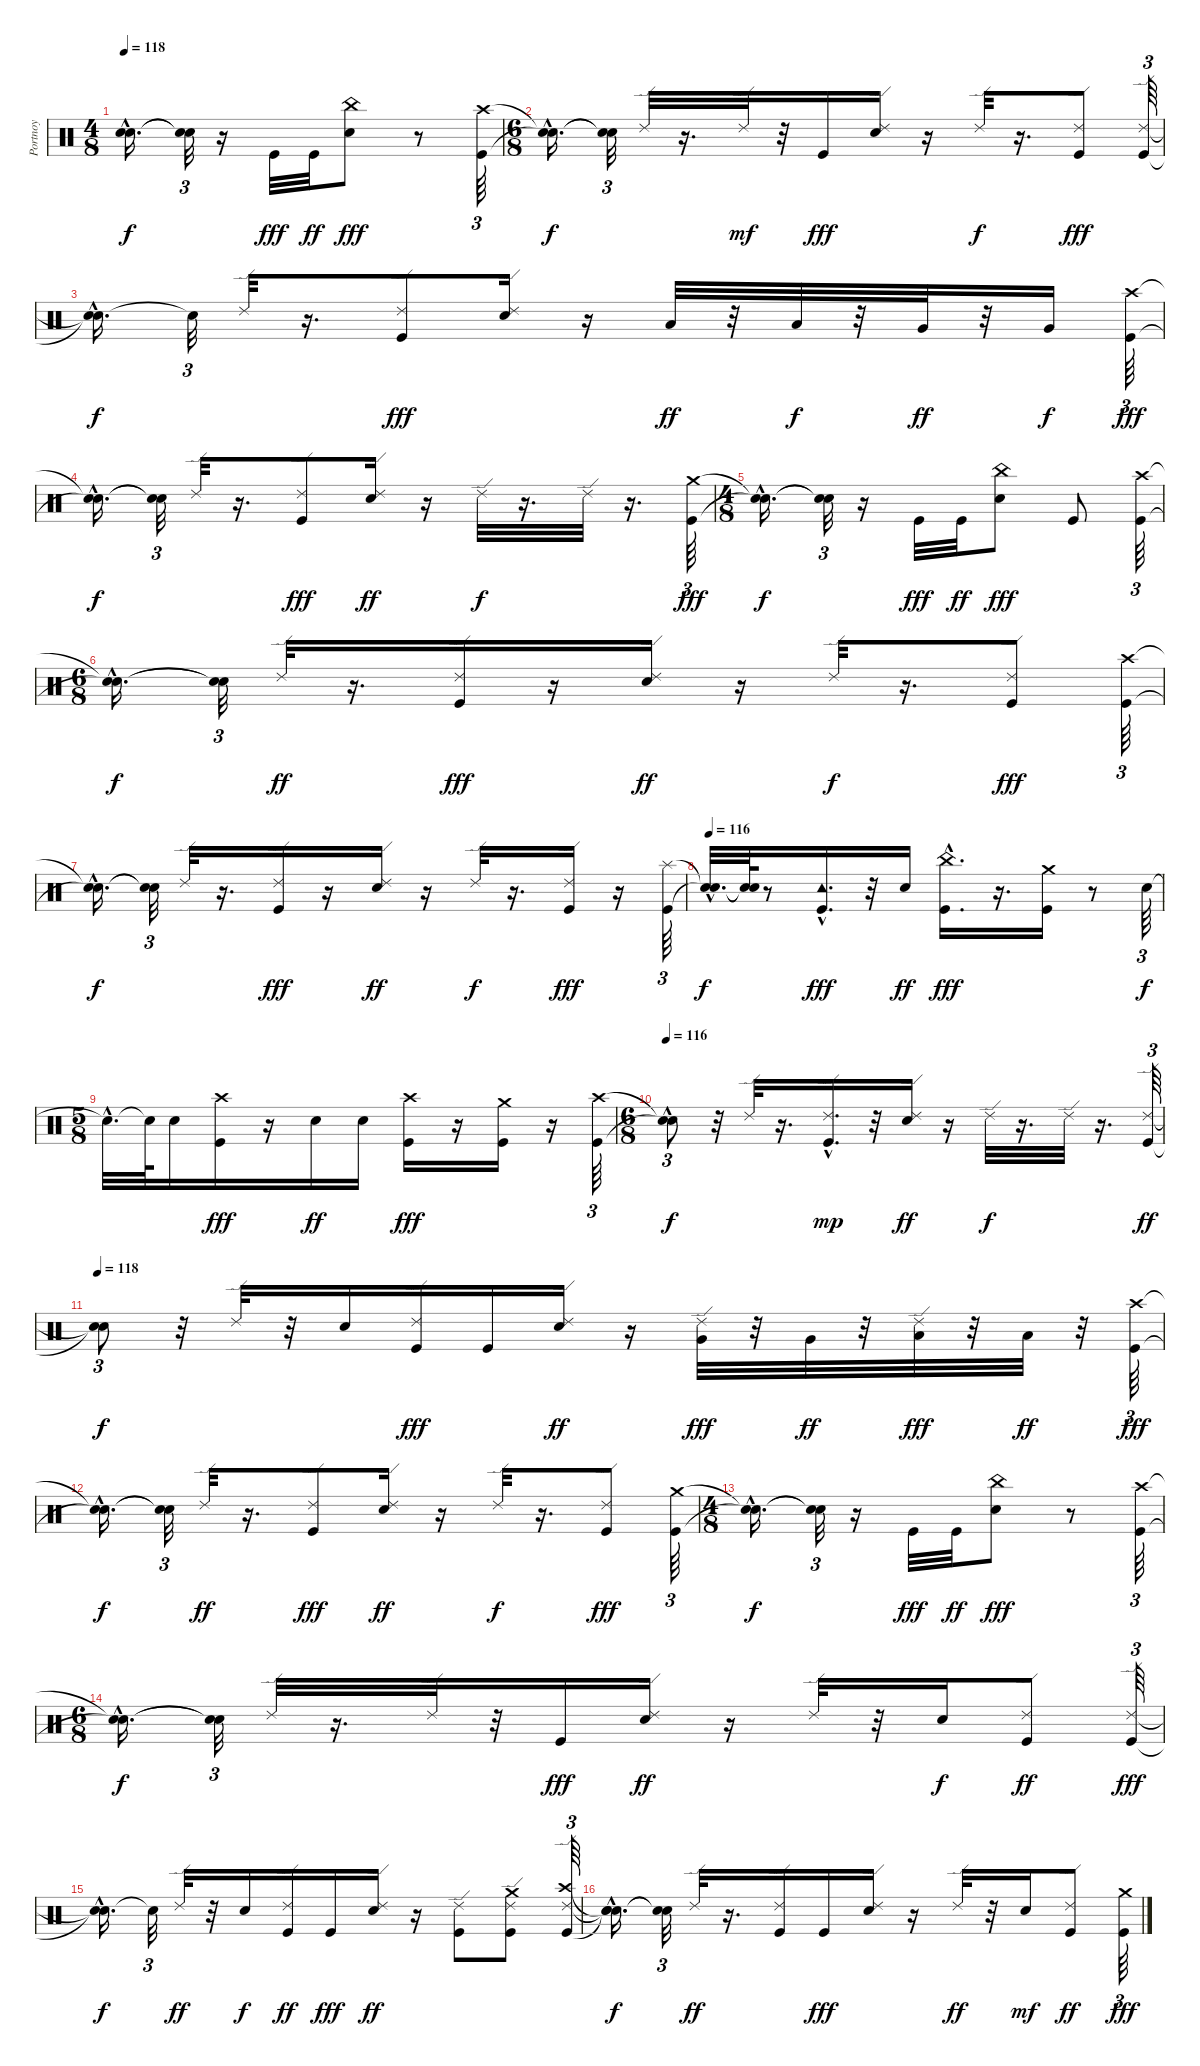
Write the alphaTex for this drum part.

\track ("Portnoy" "Portnoy") {instrument percussion}
\staff {score}
\articulation defaults
\ts (4 8)
\tempo 118
\clef neutral
\ks c
("Snare (hit)"{hac t} "Snare (hit)"{hac t}).16{d dy f} ("Snare (hit)"{t} "Snare (hit)"{t}).32{tu (3 2)} r.16 "Kick (hit)".32{dy fff} "Kick (hit)".32{dy ff} ("Snare (hit) 2" "China (hit)").8{dy fff} r.8 ("Crash high (hit)" "Kick (hit)").64{tu (3 2)} |
\ts (6 8)
("Snare (hit)"{hac t} "Snare (hit)"{hac t}).16{d dy f} ("Snare (hit)"{t} "Snare (hit)"{t}).32{tu (3 2)} "Ride (edge) 2".32 r.16{d} "Ride (edge) 2".32{dy mf} r.32 "Kick (hit)".16{dy fff} ("Ride (edge) 2" "Snare (hit) 2").16 r.16 "Ride (edge) 2".32{dy f} r.16{d} ("Ride (edge) 2" "Kick (hit)").8{dy fff} ("Ride (edge) 2" "Kick (hit)").64{tu (3 2)} |
("Snare (hit)"{t} "Snare (hit)"{hac t}).16{d dy f} "Snare (hit)"{t}.32{tu (3 2)} "Ride (edge) 2".32 r.16{d} ("Ride (edge) 2" "Kick (hit)").8{dy fff} ("Ride (edge) 2" "Snare (hit) 2").16 r.16 "Low Tom (hit)".32{dy ff} r.32 "Low Tom (hit)".32{dy f} r.32 "Very Low Tom (hit)".32{dy ff} r.32 "Very Low Tom (hit)".16{dy f} ("Crash high (hit)" "Kick (hit)").64{tu (3 2) dy fff} |
("Snare (hit)"{hac t} "Snare (hit)"{hac t}).16{d dy f} ("Snare (hit)"{t} "Snare (hit)"{t}).32{tu (3 2)} "Ride (edge) 2".32 r.16{d} ("Kick (hit)" "Ride (edge) 2").8{dy fff} ("Snare (hit) 2" "Ride (edge) 2").16{dy ff} r.16 "Ride (edge) 2".32{dy f} r.16{d} "Ride (edge) 2".32 r.16{d} ("Crash medium (hit)" "Kick (hit)").64{tu (3 2) dy fff} |
\ts (4 8)
("Snare (hit)"{hac t} "Snare (hit)"{hac t}).16{d dy f} ("Snare (hit)"{t} "Snare (hit)"{t}).32{tu (3 2)} r.16 "Kick (hit)".32{dy fff} "Kick (hit)".32{dy ff} ("China (hit)" "Snare (hit) 2").8{dy fff} "Kick (hit)".8 ("Crash high (hit)" "Kick (hit)").64{tu (3 2)} |
\ts (6 8)
("Snare (hit)"{hac t} "Snare (hit)"{hac t}).16{d dy f} ("Snare (hit)"{t} "Snare (hit)"{t}).32{tu (3 2)} "Ride (edge) 2".32{dy ff} r.16{d} ("Kick (hit)" "Ride (edge) 2").16{dy fff} r.16 ("Snare (hit) 2" "Ride (edge) 2").16{dy ff} r.16 "Ride (edge) 2".32{dy f} r.16{d} ("Ride (edge) 2" "Kick (hit)").8{dy fff} ("Crash high (hit)" "Kick (hit)").64{tu (3 2)} |
("Snare (hit)"{hac t} "Snare (hit)"{hac t}).16{d dy f} ("Snare (hit)"{t} "Snare (hit)"{t}).32{tu (3 2)} "Ride (edge) 2".32 r.16{d} ("Kick (hit)" "Ride (edge) 2").16{dy fff} r.16 ("Snare (hit) 2" "Ride (edge) 2").16{dy ff} r.16 "Ride (edge) 2".32{dy f} r.16{d} ("Kick (hit)" "Ride (edge) 2").16{dy fff} r.16 ("Splash (hit)" "Kick (hit)").64{tu (3 2)} |
\tempo 116
("Snare (hit)"{hac t} "Snare (hit)"{hac t}).32{d dy f} ("Snare (hit)"{t} "Snare (hit)"{t}).64 r.8 ("Kick (hit)"{hac} "Tambourine (hit)"{hac}).16{d dy fff} r.32 "Snare (hit) 2".16{dy ff} ("Kick (hit)"{hac} "China (hit)"{hac}).16{d dy fff} r.16{d} ("Crash medium (hit)" "Kick (hit)").16 r.8 "Snare (hit) 2".64{tu (3 2) dy f} |
\ts (5 8)
"Snare (hit)"{hac t}.32{d} "Snare (hit)"{t}.64 "Snare (hit) 2".16 ("Crash high (hit)" "Kick (hit)").16{dy fff} r.16 "Snare (hit) 2".16{dy ff} "Snare (hit) 2".16 ("Crash high (hit)" "Kick (hit)").16{dy fff} r.16 ("Crash medium (hit)" "Kick (hit)").16 r.16 ("Crash high (hit)" "Kick (hit)").64{tu (3 2)} |
\ts (6 8)
\tempo 116
("Snare (hit)"{hac t} "Snare (hit)"{t}).8{tu (3 2) dy f} r.32 "Ride (edge) 2".32 r.16{d} ("Kick (hit)"{hac} "Ride (edge) 2").16{d dy mp} r.32 ("Snare (hit) 2" "Ride (edge) 2").16{dy ff} r.16 "Ride (edge) 2".32{dy f} r.16{d} "Ride (edge) 2".32 r.16{d} ("Kick (hit)" "Ride (edge) 2").64{tu (3 2) dy ff} |
\tempo 118
("Snare (hit)"{t} "Snare (hit)"{t}).8{tu (3 2) dy f} r.32 "Ride (edge) 2".32 r.32 "Snare (hit) 2".16 ("Kick (hit)" "Ride (edge) 2").16{dy fff} "Kick (hit)".16 ("Snare (hit) 2" "Ride (edge) 2").16{dy ff} r.16 ("Ride (edge) 2" "Very Low Tom (hit)").32{dy fff} r.32 "Very Low Tom (hit)".32{dy ff} r.32 ("Low Floor Tom (hit)" "Ride (edge) 2").32{dy fff} r.32 "Low Floor Tom (hit)".32{dy ff} r.32 ("Crash high (hit)" "Kick (hit)").64{tu (3 2) dy fff} |
("Snare (hit)"{hac t} "Snare (hit)"{hac t}).16{d dy f} ("Snare (hit)"{t} "Snare (hit)"{t}).32{tu (3 2)} "Ride (edge) 2".32{dy ff} r.16{d} ("Kick (hit)" "Ride (edge) 2").8{dy fff} ("Snare (hit) 2" "Ride (edge) 2").16{dy ff} r.16 "Ride (edge) 2".32{dy f} r.16{d} ("Kick (hit)" "Ride (edge) 2").8{dy fff} ("Crash medium (hit)" "Kick (hit)").64{tu (3 2)} |
\ts (4 8)
("Snare (hit)"{hac t} "Snare (hit)"{hac t}).16{d dy f} ("Snare (hit)"{t} "Snare (hit)"{t}).32{tu (3 2)} r.16 "Kick (hit)".32{dy fff} "Kick (hit)".32{dy ff} ("Snare (hit) 2" "China (hit)").8{dy fff} r.8 ("Kick (hit)" "Crash high (hit)").64{tu (3 2)} |
\ts (6 8)
("Snare (hit)"{hac t} "Snare (hit)"{hac t}).16{d dy f} ("Snare (hit)"{t} "Snare (hit)"{t}).32{tu (3 2)} "Ride (edge) 2".32 r.16{d} "Ride (edge) 2".32 r.32 "Kick (hit)".16{dy fff} ("Snare (hit) 2" "Ride (edge) 2").16{dy ff} r.16 "Ride (edge) 2".32 r.32 "Snare (hit) 2".16{dy f} ("Kick (hit)" "Ride (edge) 2").8{dy ff} ("Ride (edge) 2" "Kick (hit)").64{tu (3 2) dy fff} |
("Snare (hit)"{t} "Snare (hit)"{hac t}).16{d dy f} "Snare (hit)"{t}.32{tu (3 2)} "Ride (edge) 2".32{dy ff} r.32 "Snare (hit) 2".16{dy f} ("Kick (hit)" "Ride (edge) 2").16{dy ff} "Kick (hit)".16{dy fff} ("Snare (hit) 2" "Ride (edge) 2").16{dy ff} r.16 ("Kick (hit)" "Ride (edge) 2").8 ("Kick (hit)" "Crash medium (hit)" "Ride (edge) 2").8 ("Kick (hit)" "Crash high (hit)" "Ride (edge) 2").64{tu (3 2)} |
("Snare (hit)"{hac t} "Snare (hit)"{hac t} "Snare (hit)"{t}).16{d dy f} ("Snare (hit)"{t} "Snare (hit)"{t}).32{tu (3 2)} "Ride (edge) 2".32{dy ff} r.16{d} ("Kick (hit)" "Ride (edge) 2").16 "Kick (hit)".16{dy fff} ("Snare (hit) 2" "Ride (edge) 2").16 r.16 "Ride (edge) 2".32{dy ff} r.32 "Snare (hit) 2".16{dy mf} ("Kick (hit)" "Ride (edge) 2").8{dy ff} ("Crash medium (hit)" "Kick (hit)").64{tu (3 2) dy fff}
